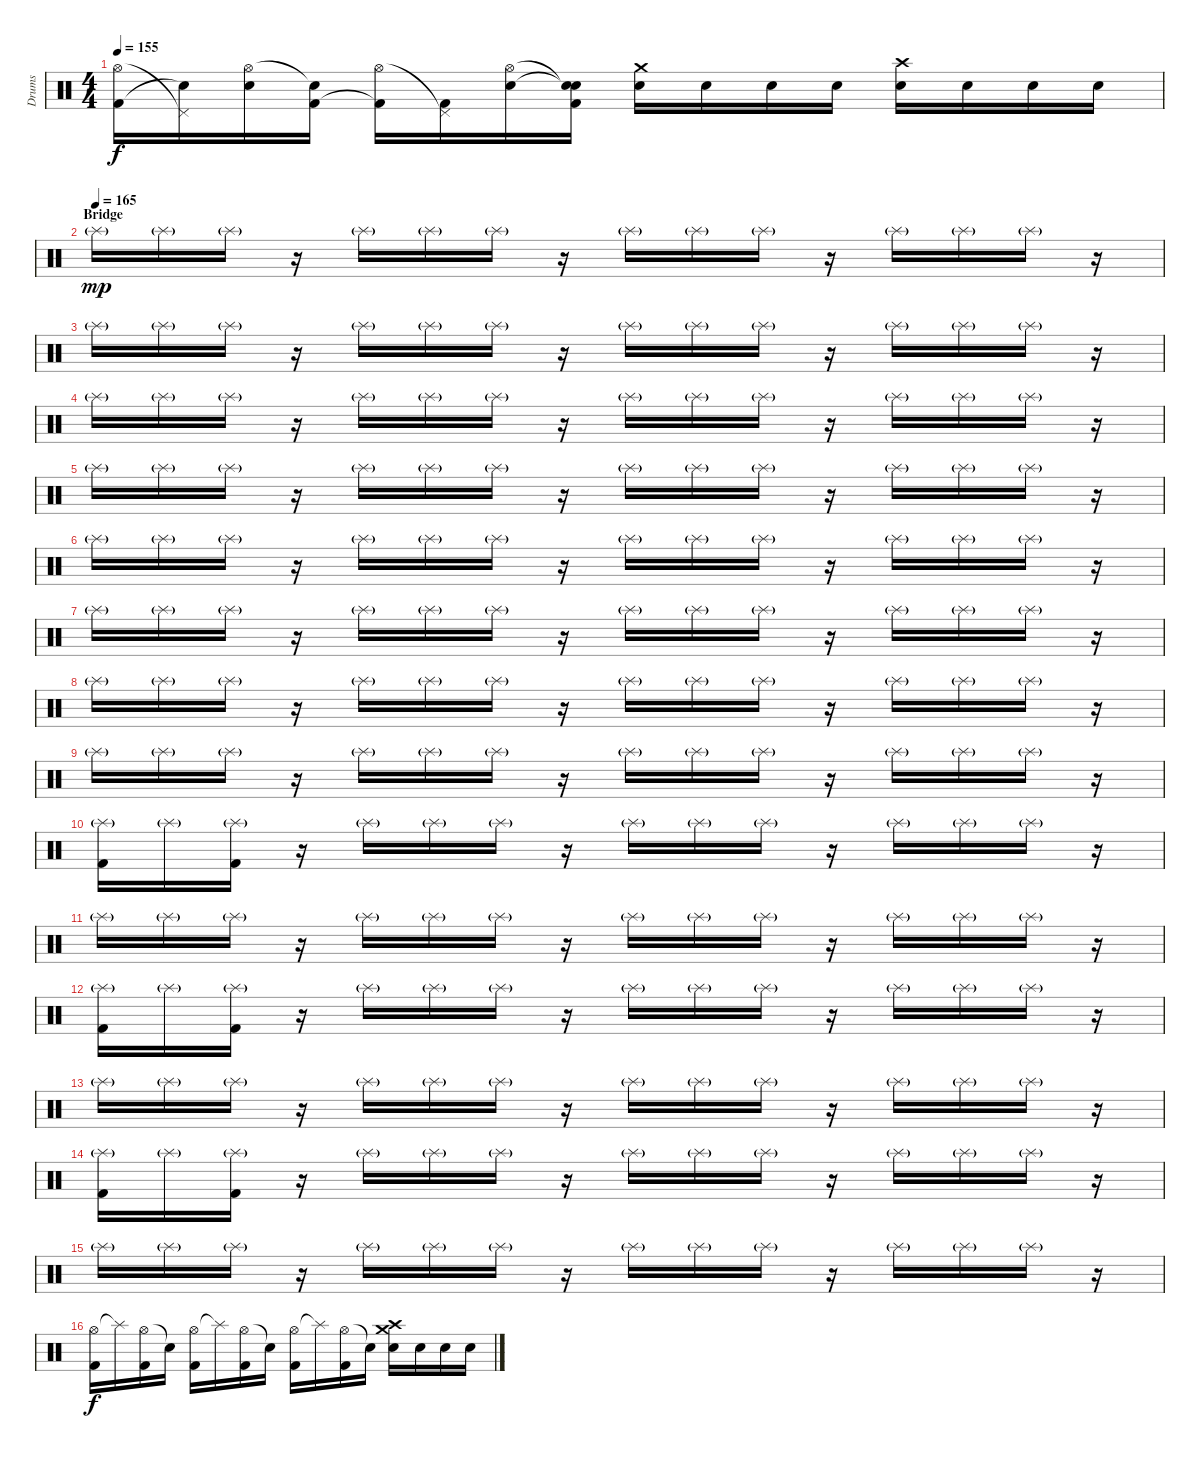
\track ("Drums" "Drums") {instrument percussion}
\staff {score}
\articulation defaults
\ts (4 4)
\tempo 155
\clef neutral
\ks c
("Hi-Hat (open)" "Kick (hit) 2").16{dy f} ("Pedal Hi-Hat (hit)"{t} "Snare (hit)"{t}).16 ("Hi-Hat (open)" "Electric Snare (hit)").16 ("Snare (hit)"{t} "Kick (hit) 2").16 ("Hi-Hat (open)" "Kick (hit) 2"{t}).16 ("Pedal Hi-Hat (hit)"{t} "Kick (hit) 2").16 ("Hi-Hat (open)" "Electric Snare (hit)").16 ("Snare (hit)"{t} "Electric Snare (hit)"{t} "Kick (hit) 2").16 ("Crash medium (hit)" "Electric Snare (hit)").16 "Electric Snare (hit)".16 "Electric Snare (hit)".16 "Electric Snare (hit)".16 ("Crash high (hit)" "Electric Snare (hit)").16 "Electric Snare (hit)".16 "Electric Snare (hit)".16 "Electric Snare (hit)".16 |
\section ("" "Bridge")
\tempo (165)
"Splash (hit)"{g}.16{dy mp} "Splash (hit)"{g}.16 "Splash (hit)"{g}.16 r.16 "Splash (hit)"{g}.16 "Splash (hit)"{g}.16 "Splash (hit)"{g}.16 r.16 "Splash (hit)"{g}.16 "Splash (hit)"{g}.16 "Splash (hit)"{g}.16 r.16 "Splash (hit)"{g}.16 "Splash (hit)"{g}.16 "Splash (hit)"{g}.16 r.16 |
"Splash (hit)"{g}.16 "Splash (hit)"{g}.16 "Splash (hit)"{g}.16 r.16 "Splash (hit)"{g}.16 "Splash (hit)"{g}.16 "Splash (hit)"{g}.16 r.16 "Splash (hit)"{g}.16 "Splash (hit)"{g}.16 "Splash (hit)"{g}.16 r.16 "Splash (hit)"{g}.16 "Splash (hit)"{g}.16 "Splash (hit)"{g}.16 r.16 |
"Splash (hit)"{g}.16 "Splash (hit)"{g}.16 "Splash (hit)"{g}.16 r.16 "Splash (hit)"{g}.16 "Splash (hit)"{g}.16 "Splash (hit)"{g}.16 r.16 "Splash (hit)"{g}.16 "Splash (hit)"{g}.16 "Splash (hit)"{g}.16 r.16 "Splash (hit)"{g}.16 "Splash (hit)"{g}.16 "Splash (hit)"{g}.16 r.16 |
"Splash (hit)"{g}.16 "Splash (hit)"{g}.16 "Splash (hit)"{g}.16 r.16 "Splash (hit)"{g}.16 "Splash (hit)"{g}.16 "Splash (hit)"{g}.16 r.16 "Splash (hit)"{g}.16 "Splash (hit)"{g}.16 "Splash (hit)"{g}.16 r.16 "Splash (hit)"{g}.16 "Splash (hit)"{g}.16 "Splash (hit)"{g}.16 r.16 |
"Splash (hit)"{g}.16 "Splash (hit)"{g}.16 "Splash (hit)"{g}.16 r.16 "Splash (hit)"{g}.16 "Splash (hit)"{g}.16 "Splash (hit)"{g}.16 r.16 "Splash (hit)"{g}.16 "Splash (hit)"{g}.16 "Splash (hit)"{g}.16 r.16 "Splash (hit)"{g}.16 "Splash (hit)"{g}.16 "Splash (hit)"{g}.16 r.16 |
"Splash (hit)"{g}.16 "Splash (hit)"{g}.16 "Splash (hit)"{g}.16 r.16 "Splash (hit)"{g}.16 "Splash (hit)"{g}.16 "Splash (hit)"{g}.16 r.16 "Splash (hit)"{g}.16 "Splash (hit)"{g}.16 "Splash (hit)"{g}.16 r.16 "Splash (hit)"{g}.16 "Splash (hit)"{g}.16 "Splash (hit)"{g}.16 r.16 |
"Splash (hit)"{g}.16 "Splash (hit)"{g}.16 "Splash (hit)"{g}.16 r.16 "Splash (hit)"{g}.16 "Splash (hit)"{g}.16 "Splash (hit)"{g}.16 r.16 "Splash (hit)"{g}.16 "Splash (hit)"{g}.16 "Splash (hit)"{g}.16 r.16 "Splash (hit)"{g}.16 "Splash (hit)"{g}.16 "Splash (hit)"{g}.16 r.16 |
"Splash (hit)"{g}.16 "Splash (hit)"{g}.16 "Splash (hit)"{g}.16 r.16 "Splash (hit)"{g}.16 "Splash (hit)"{g}.16 "Splash (hit)"{g}.16 r.16 "Splash (hit)"{g}.16 "Splash (hit)"{g}.16 "Splash (hit)"{g}.16 r.16 "Splash (hit)"{g}.16 "Splash (hit)"{g}.16 "Splash (hit)"{g}.16 r.16 |
("Splash (hit)"{g} "Kick (hit) 2").16 "Splash (hit)"{g}.16 ("Splash (hit)"{g} "Kick (hit) 2").16 r.16 "Splash (hit)"{g}.16 "Splash (hit)"{g}.16 "Splash (hit)"{g}.16 r.16 "Splash (hit)"{g}.16 "Splash (hit)"{g}.16 "Splash (hit)"{g}.16 r.16 "Splash (hit)"{g}.16 "Splash (hit)"{g}.16 "Splash (hit)"{g}.16 r.16 |
"Splash (hit)"{g}.16 "Splash (hit)"{g}.16 "Splash (hit)"{g}.16 r.16 "Splash (hit)"{g}.16 "Splash (hit)"{g}.16 "Splash (hit)"{g}.16 r.16 "Splash (hit)"{g}.16 "Splash (hit)"{g}.16 "Splash (hit)"{g}.16 r.16 "Splash (hit)"{g}.16 "Splash (hit)"{g}.16 "Splash (hit)"{g}.16 r.16 |
("Splash (hit)"{g} "Kick (hit) 2").16 "Splash (hit)"{g}.16 ("Splash (hit)"{g} "Kick (hit) 2").16 r.16 "Splash (hit)"{g}.16 "Splash (hit)"{g}.16 "Splash (hit)"{g}.16 r.16 "Splash (hit)"{g}.16 "Splash (hit)"{g}.16 "Splash (hit)"{g}.16 r.16 "Splash (hit)"{g}.16 "Splash (hit)"{g}.16 "Splash (hit)"{g}.16 r.16 |
"Splash (hit)"{g}.16 "Splash (hit)"{g}.16 "Splash (hit)"{g}.16 r.16 "Splash (hit)"{g}.16 "Splash (hit)"{g}.16 "Splash (hit)"{g}.16 r.16 "Splash (hit)"{g}.16 "Splash (hit)"{g}.16 "Splash (hit)"{g}.16 r.16 "Splash (hit)"{g}.16 "Splash (hit)"{g}.16 "Splash (hit)"{g}.16 r.16 |
("Splash (hit)"{g} "Kick (hit) 2").16 "Splash (hit)"{g}.16 ("Splash (hit)"{g} "Kick (hit) 2").16 r.16 "Splash (hit)"{g}.16 "Splash (hit)"{g}.16 "Splash (hit)"{g}.16 r.16 "Splash (hit)"{g}.16 "Splash (hit)"{g}.16 "Splash (hit)"{g}.16 r.16 "Splash (hit)"{g}.16 "Splash (hit)"{g}.16 "Splash (hit)"{g}.16 r.16 |
"Splash (hit)"{g}.16 "Splash (hit)"{g}.16 "Splash (hit)"{g}.16 r.16 "Splash (hit)"{g}.16 "Splash (hit)"{g}.16 "Splash (hit)"{g}.16 r.16 "Splash (hit)"{g}.16 "Splash (hit)"{g}.16 "Splash (hit)"{g}.16 r.16 "Splash (hit)"{g}.16 "Splash (hit)"{g}.16 "Splash (hit)"{g}.16 r.16 |
("Hi-Hat (open)" "Kick (hit) 2").16{dy f} "Splash (hit)"{t}.16 ("Hi-Hat (open)" "Kick (hit) 2").16 "Snare (hit)"{t}.16 ("Hi-Hat (open)" "Kick (hit) 2").16 "Splash (hit)"{t}.16 ("Hi-Hat (open)" "Kick (hit) 2").16 "Snare (hit)"{t}.16 ("Hi-Hat (open)" "Kick (hit) 2").16 "Splash (hit)"{t}.16 ("Hi-Hat (open)" "Kick (hit) 2").16 "Snare (hit)"{t}.16 ("Crash high (hit)" "Crash medium (hit)" "Electric Snare (hit)").16 "Electric Snare (hit)".16 "Electric Snare (hit)".16 "Electric Snare (hit)".16
